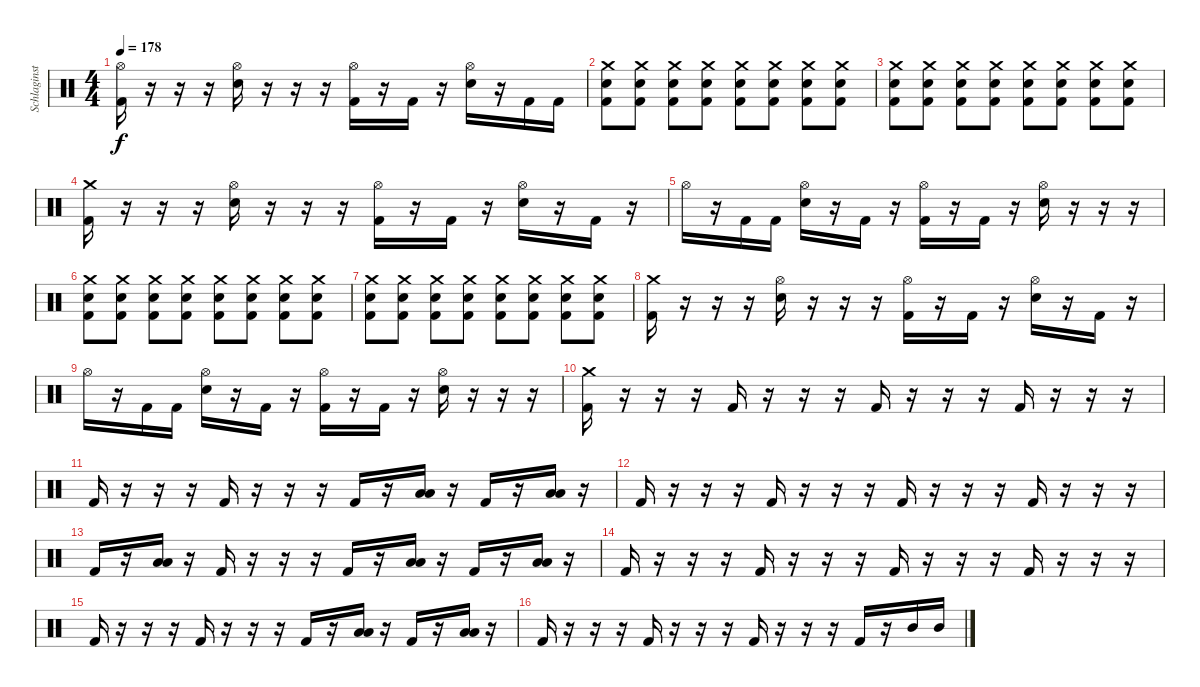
\track ("Schlaginstrumente - Auswahl" "Schlaginst") {instrument percussion}
\staff {score}
\articulation defaults
\ts (4 4)
\tempo 178
\clef neutral
\ks c
("Hi-Hat (open)" "Kick (hit) 2").16{dy f} r.16 r.16 r.16 ("Hi-Hat (open)" "Snare (hit) 2").16 r.16 r.16 r.16 ("Hi-Hat (open)" "Kick (hit) 2").16 r.16 "Kick (hit) 2".16 r.16 ("Hi-Hat (open)" "Snare (hit) 2").16 r.16 "Kick (hit) 2".16 "Kick (hit) 2".16 |
("Crash medium (hit)" "Snare (hit) 2" "Kick (hit) 2").8 ("Crash medium (hit)" "Snare (hit) 2" "Kick (hit) 2").8 ("Crash medium (hit)" "Snare (hit) 2" "Kick (hit) 2").8 ("Crash medium (hit)" "Snare (hit) 2" "Kick (hit) 2").8 ("Crash medium (hit)" "Snare (hit) 2" "Kick (hit) 2").8 ("Crash medium (hit)" "Snare (hit) 2" "Kick (hit) 2").8 ("Crash medium (hit)" "Snare (hit) 2" "Kick (hit) 2").8 ("Crash medium (hit)" "Snare (hit) 2" "Kick (hit) 2").8 |
("Crash medium (hit)" "Snare (hit) 2" "Kick (hit) 2").8 ("Crash medium (hit)" "Snare (hit) 2" "Kick (hit) 2").8 ("Crash medium (hit)" "Snare (hit) 2" "Kick (hit) 2").8 ("Crash medium (hit)" "Snare (hit) 2" "Kick (hit) 2").8 ("Crash medium (hit)" "Snare (hit) 2" "Kick (hit) 2").8 ("Crash medium (hit)" "Snare (hit) 2" "Kick (hit) 2").8 ("Crash medium (hit)" "Snare (hit) 2" "Kick (hit) 2").8 ("Crash medium (hit)" "Snare (hit) 2" "Kick (hit) 2").8 |
("Crash medium (hit)" "Kick (hit) 2").16 r.16 r.16 r.16 ("Hi-Hat (open)" "Snare (hit) 2").16 r.16 r.16 r.16 ("Hi-Hat (open)" "Kick (hit) 2").16 r.16 "Kick (hit) 2".16 r.16 ("Hi-Hat (open)" "Snare (hit) 2").16 r.16 "Kick (hit) 2".16 r.16 |
"Hi-Hat (open)".16 r.16 "Kick (hit) 2".16 "Kick (hit) 2".16 ("Hi-Hat (open)" "Snare (hit) 2").16 r.16 "Kick (hit) 2".16 r.16 ("Hi-Hat (open)" "Kick (hit) 2").16 r.16 "Kick (hit) 2".16 r.16 ("Hi-Hat (open)" "Snare (hit) 2").16 r.16 r.16 r.16 |
("Crash medium (hit)" "Snare (hit) 2" "Kick (hit) 2").8 ("Crash medium (hit)" "Snare (hit) 2" "Kick (hit) 2").8 ("Crash medium (hit)" "Snare (hit) 2" "Kick (hit) 2").8 ("Crash medium (hit)" "Snare (hit) 2" "Kick (hit) 2").8 ("Crash medium (hit)" "Snare (hit) 2" "Kick (hit) 2").8 ("Crash medium (hit)" "Snare (hit) 2" "Kick (hit) 2").8 ("Crash medium (hit)" "Snare (hit) 2" "Kick (hit) 2").8 ("Crash medium (hit)" "Snare (hit) 2" "Kick (hit) 2").8 |
("Crash medium (hit)" "Snare (hit) 2" "Kick (hit) 2").8 ("Crash medium (hit)" "Snare (hit) 2" "Kick (hit) 2").8 ("Crash medium (hit)" "Snare (hit) 2" "Kick (hit) 2").8 ("Crash medium (hit)" "Snare (hit) 2" "Kick (hit) 2").8 ("Crash medium (hit)" "Snare (hit) 2" "Kick (hit) 2").8 ("Crash medium (hit)" "Snare (hit) 2" "Kick (hit) 2").8 ("Crash medium (hit)" "Snare (hit) 2" "Kick (hit) 2").8 ("Crash medium (hit)" "Snare (hit) 2" "Kick (hit) 2").8 |
("Crash medium (hit)" "Kick (hit) 2").16 r.16 r.16 r.16 ("Hi-Hat (open)" "Snare (hit) 2").16 r.16 r.16 r.16 ("Hi-Hat (open)" "Kick (hit) 2").16 r.16 "Kick (hit) 2".16 r.16 ("Hi-Hat (open)" "Snare (hit) 2").16 r.16 "Kick (hit) 2".16 r.16 |
"Hi-Hat (open)".16 r.16 "Kick (hit) 2".16 "Kick (hit) 2".16 ("Hi-Hat (open)" "Snare (hit) 2").16 r.16 "Kick (hit) 2".16 r.16 ("Hi-Hat (open)" "Kick (hit) 2").16 r.16 "Kick (hit) 2".16 r.16 ("Hi-Hat (open)" "Snare (hit) 2").16 r.16 r.16 r.16 |
("Crash medium (hit)" "Kick (hit) 2").16 r.16 r.16 r.16 "Kick (hit) 2".16 r.16 r.16 r.16 "Kick (hit) 2".16 r.16 r.16 r.16 "Kick (hit) 2".16 r.16 r.16 r.16 |
"Kick (hit) 2".16 r.16 r.16 r.16 "Kick (hit) 2".16 r.16 r.16 r.16 "Kick (hit) 2".16 r.16 ("Low Tom (hit)" "Low Tom (hit)").16 r.16 "Kick (hit) 2".16 r.16 ("Low Tom (hit)" "Low Tom (hit)").16 r.16 |
"Kick (hit) 2".16 r.16 r.16 r.16 "Kick (hit) 2".16 r.16 r.16 r.16 "Kick (hit) 2".16 r.16 r.16 r.16 "Kick (hit) 2".16 r.16 r.16 r.16 |
"Kick (hit) 2".16 r.16 ("Low Tom (hit)" "Low Tom (hit)").16 r.16 "Kick (hit) 2".16 r.16 r.16 r.16 "Kick (hit) 2".16 r.16 ("Low Tom (hit)" "Low Tom (hit)").16 r.16 "Kick (hit) 2".16 r.16 ("Low Tom (hit)" "Low Tom (hit)").16 r.16 |
"Kick (hit) 2".16 r.16 r.16 r.16 "Kick (hit) 2".16 r.16 r.16 r.16 "Kick (hit) 2".16 r.16 r.16 r.16 "Kick (hit) 2".16 r.16 r.16 r.16 |
"Kick (hit) 2".16 r.16 r.16 r.16 "Kick (hit) 2".16 r.16 r.16 r.16 "Kick (hit) 2".16 r.16 ("Low Tom (hit)" "Low Tom (hit)").16 r.16 "Kick (hit) 2".16 r.16 ("Low Tom (hit)" "Low Tom (hit)").16 r.16 |
"Kick (hit) 2".16 r.16 r.16 r.16 "Kick (hit) 2".16 r.16 r.16 r.16 "Kick (hit) 2".16 r.16 r.16 r.16 "Kick (hit) 2".16 r.16 "Mid Tom (hit)".16 "Mid Tom (hit)".16
